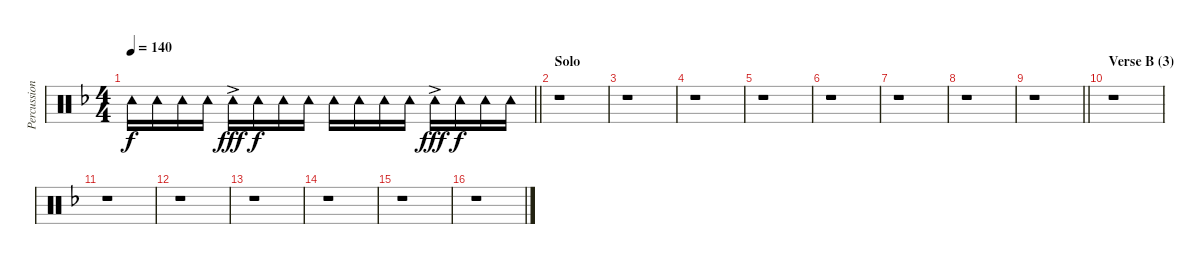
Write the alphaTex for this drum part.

\track ("Percussion" "Percussion") {instrument percussion}
\staff {score}
\articulation defaults
\ts (4 4)
\tempo 140
\clef neutral
\barLineRight lightlight
\ks f "Tambourine (hit)".16{dy f} "Tambourine (hit)".16 "Tambourine (hit)".16 "Tambourine (hit)".16 "Tambourine (hit)"{ac}.16{dy fff} "Tambourine (hit)".16{dy f} "Tambourine (hit)".16 "Tambourine (hit)".16 "Tambourine (hit)".16 "Tambourine (hit)".16 "Tambourine (hit)".16 "Tambourine (hit)".16 "Tambourine (hit)"{ac}.16{dy fff} "Tambourine (hit)".16{dy f} "Tambourine (hit)".16 "Tambourine (hit)".16
|
\section ("" "Solo")
r.1 |
r.1 |
r.1 |
r.1 |
r.1 |
r.1 |
r.1 |
\barLineRight lightlight
r.1 |
\section ("" "Verse B (3)")
r.1 |
r.1 |
r.1 |
r.1 |
r.1 |
r.1 |
r.1
